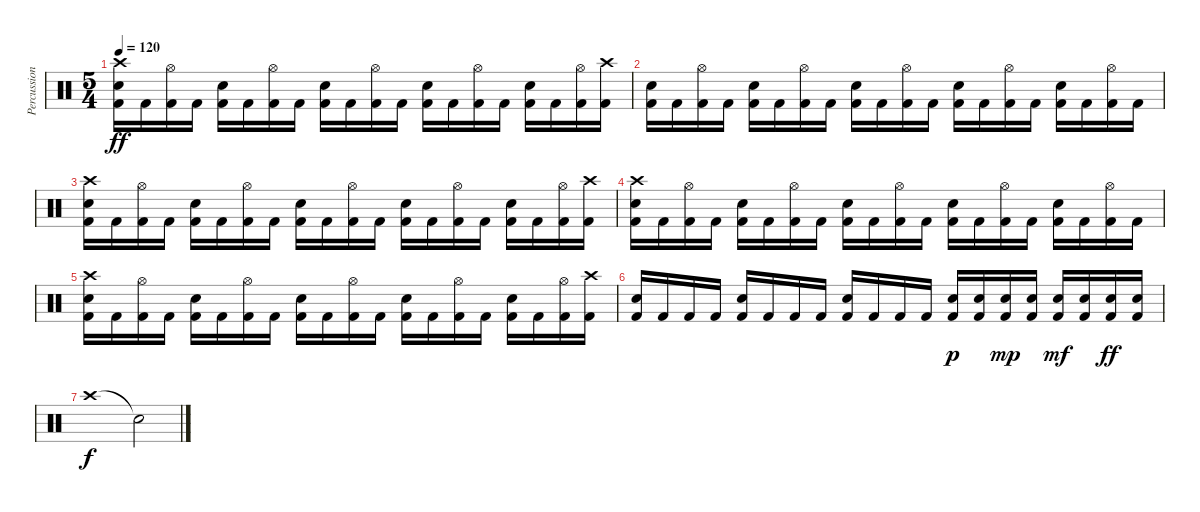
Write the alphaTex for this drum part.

\track ("Percussioni" "Percussion") {instrument percussion}
\staff {score}
\articulation defaults
\ts (5 4)
\tempo 120
\clef neutral
\ks c
("Kick (hit) 2" "Crash high (hit)" "Electric Snare (hit)").16{dy ff} "Kick (hit) 2".16 ("Kick (hit) 2" "Hi-Hat (open)").16 "Kick (hit) 2".16 ("Kick (hit) 2" "Electric Snare (hit)").16 "Kick (hit) 2".16 ("Kick (hit) 2" "Hi-Hat (open)").16 "Kick (hit) 2".16 ("Kick (hit) 2" "Electric Snare (hit)").16 "Kick (hit) 2".16 ("Kick (hit) 2" "Hi-Hat (open)").16 "Kick (hit) 2".16 ("Kick (hit) 2" "Electric Snare (hit)").16 "Kick (hit) 2".16 ("Kick (hit) 2" "Hi-Hat (open)").16 "Kick (hit) 2".16 ("Kick (hit) 2" "Electric Snare (hit)").16 "Kick (hit) 2".16 ("Kick (hit) 2" "Hi-Hat (open)").16 ("Kick (hit) 2" "Crash high (hit)").16 |
("Kick (hit) 2" "Electric Snare (hit)").16 "Kick (hit) 2".16 ("Kick (hit) 2" "Hi-Hat (open)").16 "Kick (hit) 2".16 ("Kick (hit) 2" "Electric Snare (hit)").16 "Kick (hit) 2".16 ("Kick (hit) 2" "Hi-Hat (open)").16 "Kick (hit) 2".16 ("Kick (hit) 2" "Electric Snare (hit)").16 "Kick (hit) 2".16 ("Kick (hit) 2" "Hi-Hat (open)").16 "Kick (hit) 2".16 ("Kick (hit) 2" "Electric Snare (hit)").16 "Kick (hit) 2".16 ("Kick (hit) 2" "Hi-Hat (open)").16 "Kick (hit) 2".16 ("Kick (hit) 2" "Electric Snare (hit)").16 "Kick (hit) 2".16 ("Kick (hit) 2" "Hi-Hat (open)").16 "Kick (hit) 2".16 |
("Kick (hit) 2" "Crash high (hit)" "Electric Snare (hit)").16 "Kick (hit) 2".16 ("Kick (hit) 2" "Hi-Hat (open)").16 "Kick (hit) 2".16 ("Kick (hit) 2" "Electric Snare (hit)").16 "Kick (hit) 2".16 ("Kick (hit) 2" "Hi-Hat (open)").16 "Kick (hit) 2".16 ("Kick (hit) 2" "Electric Snare (hit)").16 "Kick (hit) 2".16 ("Kick (hit) 2" "Hi-Hat (open)").16 "Kick (hit) 2".16 ("Kick (hit) 2" "Electric Snare (hit)").16 "Kick (hit) 2".16 ("Kick (hit) 2" "Hi-Hat (open)").16 "Kick (hit) 2".16 ("Kick (hit) 2" "Electric Snare (hit)").16 "Kick (hit) 2".16 ("Kick (hit) 2" "Hi-Hat (open)").16 ("Kick (hit) 2" "Crash high (hit)").16 |
("Kick (hit) 2" "Crash high (hit)" "Electric Snare (hit)").16 "Kick (hit) 2".16 ("Kick (hit) 2" "Hi-Hat (open)").16 "Kick (hit) 2".16 ("Kick (hit) 2" "Electric Snare (hit)").16 "Kick (hit) 2".16 ("Kick (hit) 2" "Hi-Hat (open)").16 "Kick (hit) 2".16 ("Kick (hit) 2" "Electric Snare (hit)").16 "Kick (hit) 2".16 ("Kick (hit) 2" "Hi-Hat (open)").16 "Kick (hit) 2".16 ("Kick (hit) 2" "Electric Snare (hit)").16 "Kick (hit) 2".16 ("Kick (hit) 2" "Hi-Hat (open)").16 "Kick (hit) 2".16 ("Kick (hit) 2" "Electric Snare (hit)").16 "Kick (hit) 2".16 ("Kick (hit) 2" "Hi-Hat (open)").16 "Kick (hit) 2".16 |
("Kick (hit) 2" "Crash high (hit)" "Electric Snare (hit)").16 "Kick (hit) 2".16 ("Kick (hit) 2" "Hi-Hat (open)").16 "Kick (hit) 2".16 ("Kick (hit) 2" "Electric Snare (hit)").16 "Kick (hit) 2".16 ("Kick (hit) 2" "Hi-Hat (open)").16 "Kick (hit) 2".16 ("Kick (hit) 2" "Electric Snare (hit)").16 "Kick (hit) 2".16 ("Kick (hit) 2" "Hi-Hat (open)").16 "Kick (hit) 2".16 ("Kick (hit) 2" "Electric Snare (hit)").16 "Kick (hit) 2".16 ("Kick (hit) 2" "Hi-Hat (open)").16 "Kick (hit) 2".16 ("Kick (hit) 2" "Electric Snare (hit)").16 "Kick (hit) 2".16 ("Kick (hit) 2" "Hi-Hat (open)").16 ("Kick (hit) 2" "Crash high (hit)").16 |
("Kick (hit) 2" "Electric Snare (hit)").16 "Kick (hit) 2".16 "Kick (hit) 2".16 "Kick (hit) 2".16 ("Kick (hit) 2" "Electric Snare (hit)").16 "Kick (hit) 2".16 "Kick (hit) 2".16 "Kick (hit) 2".16 ("Kick (hit) 2" "Electric Snare (hit)").16 "Kick (hit) 2".16 "Kick (hit) 2".16 "Kick (hit) 2".16 ("Kick (hit) 2" "Electric Snare (hit)").16{dy p} ("Kick (hit) 2" "Electric Snare (hit)").16 ("Kick (hit) 2" "Electric Snare (hit)").16{dy mp} ("Kick (hit) 2" "Electric Snare (hit)").16 ("Kick (hit) 2" "Electric Snare (hit)").16{dy mf} ("Kick (hit) 2" "Electric Snare (hit)").16 ("Kick (hit) 2" "Electric Snare (hit)").16{dy ff} ("Kick (hit) 2" "Electric Snare (hit)").16 |
"Crash high (hit)".1{dy f} "Snare (hit)"{t}.2
